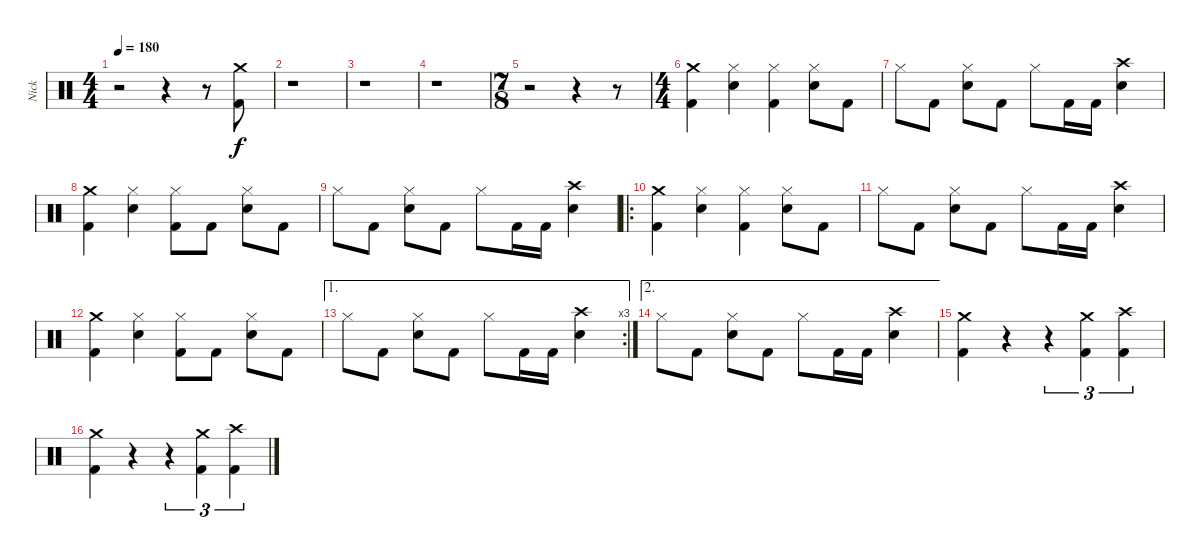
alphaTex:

\track ("Nick" "Nick") {instrument percussion}
\staff {score}
\articulation defaults
\ts (4 4)
\tempo 180
\clef neutral
\ks c
r.2{dy f} r.4 r.8 ("Crash medium (hit)" "Kick (hit) 2").8 |
r.1 |
r.1 |
r.1 |
\ts (7 8)
r.2 r.4 r.8 |
\ts (4 4)
("Crash medium (hit)" "Kick (hit) 2").4 ("Hi-Hat (closed)" "Electric Snare (hit)").4 ("Hi-Hat (closed)" "Kick (hit) 2").4 ("Hi-Hat (closed)" "Electric Snare (hit)").8 "Kick (hit) 2".8 |
"Hi-Hat (closed)".8 "Kick (hit) 2".8 ("Hi-Hat (closed)" "Electric Snare (hit)").8 "Kick (hit) 2".8 "Hi-Hat (closed)".8 "Kick (hit) 2".16 "Kick (hit) 2".16 ("Crash high (hit)" "Electric Snare (hit)").4 |
("Crash medium (hit)" "Kick (hit) 2").4 ("Hi-Hat (closed)" "Electric Snare (hit)").4 ("Hi-Hat (closed)" "Kick (hit) 2").8 "Kick (hit) 2".8 ("Hi-Hat (closed)" "Electric Snare (hit)").8 "Kick (hit) 2".8 |
"Hi-Hat (closed)".8 "Kick (hit) 2".8 ("Hi-Hat (closed)" "Electric Snare (hit)").8 "Kick (hit) 2".8 "Hi-Hat (closed)".8 "Kick (hit) 2".16 "Kick (hit) 2".16 ("Crash high (hit)" "Electric Snare (hit)").4 |
\ro
("Crash medium (hit)" "Kick (hit) 2").4 ("Hi-Hat (closed)" "Electric Snare (hit)").4 ("Hi-Hat (closed)" "Kick (hit) 2").4 ("Hi-Hat (closed)" "Electric Snare (hit)").8 "Kick (hit) 2".8 |
"Hi-Hat (closed)".8 "Kick (hit) 2".8 ("Hi-Hat (closed)" "Electric Snare (hit)").8 "Kick (hit) 2".8 "Hi-Hat (closed)".8 "Kick (hit) 2".16 "Kick (hit) 2".16 ("Crash high (hit)" "Electric Snare (hit)").4 |
("Crash medium (hit)" "Kick (hit) 2").4 ("Hi-Hat (closed)" "Electric Snare (hit)").4 ("Hi-Hat (closed)" "Kick (hit) 2").8 "Kick (hit) 2".8 ("Hi-Hat (closed)" "Electric Snare (hit)").8 "Kick (hit) 2".8 |
\ae 1
\rc 3 "Hi-Hat (closed)".8 "Kick (hit) 2".8
("Hi-Hat (closed)" "Electric Snare (hit)").8 "Kick (hit) 2".8 "Hi-Hat (closed)".8 "Kick (hit) 2".16 "Kick (hit) 2".16 ("Crash high (hit)" "Electric Snare (hit)").4 |
\ae 2 "Hi-Hat (closed)".8 "Kick (hit) 2".8
("Hi-Hat (closed)" "Electric Snare (hit)").8 "Kick (hit) 2".8 "Hi-Hat (closed)".8 "Kick (hit) 2".16 "Kick (hit) 2".16 ("Crash high (hit)" "Electric Snare (hit)").4 |
("Crash medium (hit)" "Kick (hit) 2").4 r.4 r.4{tu (3 2)} ("Crash medium (hit)" "Kick (hit) 2").4{tu (3 2)} ("Crash high (hit)" "Kick (hit) 2").4{tu (3 2)} |
("Crash medium (hit)" "Kick (hit) 2").4 r.4 r.4{tu (3 2)} ("Crash medium (hit)" "Kick (hit) 2").4{tu (3 2)} ("Crash high (hit)" "Kick (hit) 2").4{tu (3 2)}
